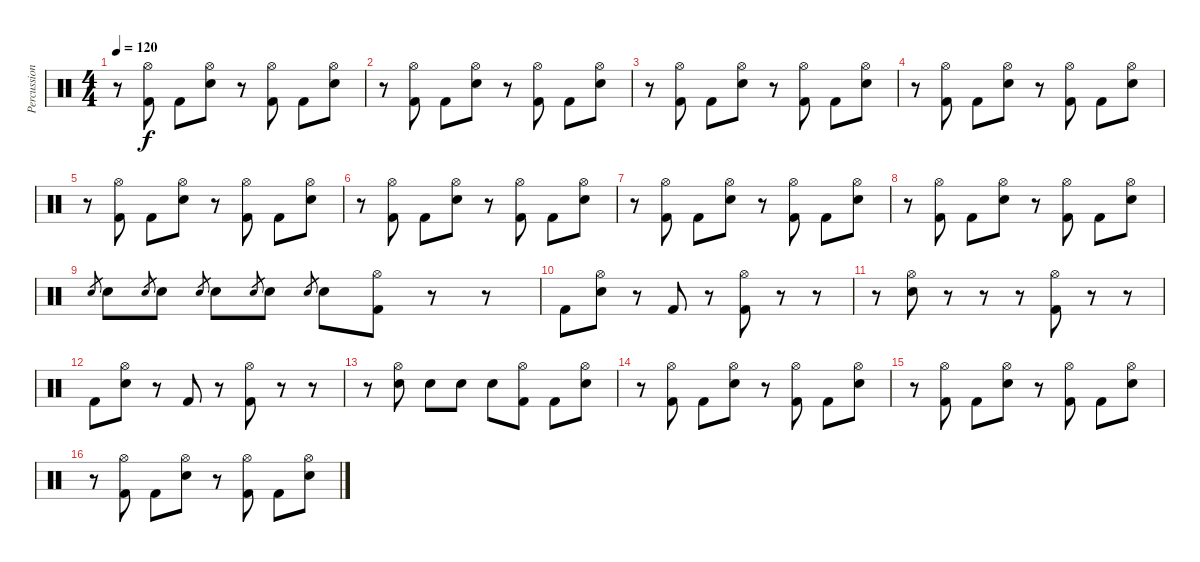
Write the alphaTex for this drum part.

\track ("Percussion" "Percussion") {solo instrument percussion}
\staff {score}
\articulation defaults
\ts (4 4)
\tempo 120
\clef neutral
\ks c
r.8{dy f} ("Hi-Hat (open)" "Kick (hit) 2").8 "Kick (hit) 2".8 ("Hi-Hat (open)" "Snare (hit) 2").8 r.8 ("Hi-Hat (open)" "Kick (hit) 2").8 "Kick (hit) 2".8 ("Hi-Hat (open)" "Snare (hit) 2").8 |
r.8 ("Hi-Hat (open)" "Kick (hit) 2").8 "Kick (hit) 2".8 ("Hi-Hat (open)" "Snare (hit) 2").8 r.8 ("Hi-Hat (open)" "Kick (hit) 2").8 "Kick (hit) 2".8 ("Hi-Hat (open)" "Snare (hit) 2").8 |
r.8 ("Hi-Hat (open)" "Kick (hit) 2").8 "Kick (hit) 2".8 ("Hi-Hat (open)" "Snare (hit) 2").8 r.8 ("Hi-Hat (open)" "Kick (hit) 2").8 "Kick (hit) 2".8 ("Hi-Hat (open)" "Snare (hit) 2").8 |
r.8 ("Hi-Hat (open)" "Kick (hit) 2").8 "Kick (hit) 2".8 ("Hi-Hat (open)" "Snare (hit) 2").8 r.8 ("Hi-Hat (open)" "Kick (hit) 2").8 "Kick (hit) 2".8 ("Hi-Hat (open)" "Snare (hit) 2").8 |
r.8 ("Hi-Hat (open)" "Kick (hit) 2").8 "Kick (hit) 2".8 ("Hi-Hat (open)" "Snare (hit) 2").8 r.8 ("Hi-Hat (open)" "Kick (hit) 2").8 "Kick (hit) 2".8 ("Hi-Hat (open)" "Snare (hit) 2").8 |
r.8 ("Hi-Hat (open)" "Kick (hit) 2").8 "Kick (hit) 2".8 ("Hi-Hat (open)" "Snare (hit) 2").8 r.8 ("Hi-Hat (open)" "Kick (hit) 2").8 "Kick (hit) 2".8 ("Hi-Hat (open)" "Snare (hit) 2").8 |
r.8 ("Hi-Hat (open)" "Kick (hit) 2").8 "Kick (hit) 2".8 ("Hi-Hat (open)" "Snare (hit) 2").8 r.8 ("Hi-Hat (open)" "Kick (hit) 2").8 "Kick (hit) 2".8 ("Hi-Hat (open)" "Snare (hit) 2").8 |
r.8 ("Hi-Hat (open)" "Kick (hit) 2").8 "Kick (hit) 2".8 ("Hi-Hat (open)" "Snare (hit) 2").8 r.8 ("Hi-Hat (open)" "Kick (hit) 2").8 "Kick (hit) 2".8 ("Hi-Hat (open)" "Snare (hit) 2").8 |
"Snare (hit) 2".8{gr} "Snare (hit) 2".8 "Snare (hit) 2".8{gr} "Snare (hit) 2".8 "Snare (hit) 2".8{gr} "Snare (hit) 2".8 "Snare (hit) 2".8{gr} "Snare (hit) 2".8 "Snare (hit) 2".8{gr} "Snare (hit) 2".8 ("Hi-Hat (open)" "Kick (hit) 2").8 r.8 r.8 |
"Kick (hit) 2".8 ("Hi-Hat (open)" "Snare (hit) 2").8 r.8 "Kick (hit) 2".8 r.8 ("Hi-Hat (open)" "Kick (hit) 2").8 r.8 r.8 |
r.8 ("Hi-Hat (open)" "Snare (hit) 2").8 r.8 r.8 r.8 ("Hi-Hat (open)" "Kick (hit) 2").8 r.8 r.8 |
"Kick (hit) 2".8 ("Hi-Hat (open)" "Snare (hit) 2").8 r.8 "Kick (hit) 2".8 r.8 ("Hi-Hat (open)" "Kick (hit) 2").8 r.8 r.8 |
r.8 ("Hi-Hat (open)" "Snare (hit) 2").8 "Snare (hit) 2".8 "Snare (hit) 2".8 "Snare (hit) 2".8 ("Hi-Hat (open)" "Kick (hit) 2").8 "Kick (hit) 2".8 ("Hi-Hat (open)" "Snare (hit) 2").8 |
r.8 ("Hi-Hat (open)" "Kick (hit) 2").8 "Kick (hit) 2".8 ("Hi-Hat (open)" "Snare (hit) 2").8 r.8 ("Hi-Hat (open)" "Kick (hit) 2").8 "Kick (hit) 2".8 ("Hi-Hat (open)" "Snare (hit) 2").8 |
r.8 ("Hi-Hat (open)" "Kick (hit) 2").8 "Kick (hit) 2".8 ("Hi-Hat (open)" "Snare (hit) 2").8 r.8 ("Hi-Hat (open)" "Kick (hit) 2").8 "Kick (hit) 2".8 ("Hi-Hat (open)" "Snare (hit) 2").8 |
r.8 ("Hi-Hat (open)" "Kick (hit) 2").8 "Kick (hit) 2".8 ("Hi-Hat (open)" "Snare (hit) 2").8 r.8 ("Hi-Hat (open)" "Kick (hit) 2").8 "Kick (hit) 2".8 ("Hi-Hat (open)" "Snare (hit) 2").8
